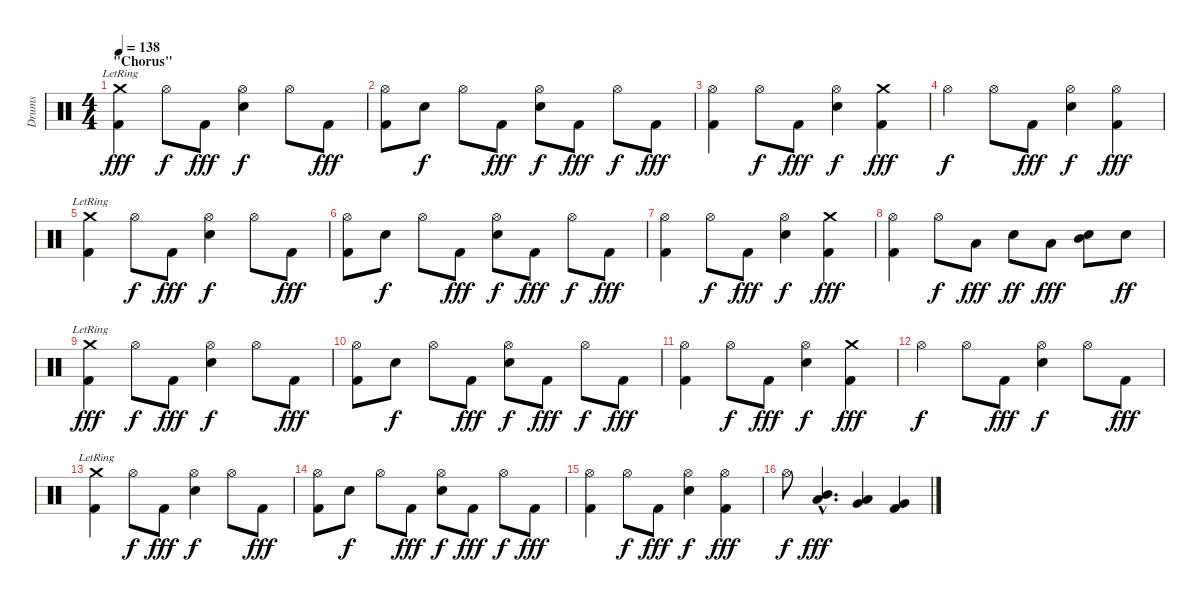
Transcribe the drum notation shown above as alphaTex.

\track ("Drums" "Drums") {instrument percussion}
\staff {score}
\articulation defaults
\ts (4 4)
\section ("" "\"Chorus\"")
\tempo 138
\clef neutral
\ks c
("Crash medium (hit)"{lr} "Kick (hit) 2").4{dy fff} "Hi-Hat (open)".8{dy f} "Kick (hit) 2".8{dy fff} ("Hi-Hat (open)" "Snare (hit) 2").4{dy f} "Hi-Hat (open)".8 "Kick (hit) 2".8{dy fff} |
("Hi-Hat (open)" "Kick (hit) 2").8 "Snare (hit) 2".8{dy f} "Hi-Hat (open)".8 "Kick (hit) 2".8{dy fff} ("Hi-Hat (open)" "Snare (hit) 2").8{dy f} "Kick (hit) 2".8{dy fff} "Hi-Hat (open)".8{dy f} "Kick (hit) 2".8{dy fff} |
("Hi-Hat (open)" "Kick (hit) 2").4 "Hi-Hat (open)".8{dy f} "Kick (hit) 2".8{dy fff} ("Hi-Hat (open)" "Snare (hit) 2").4{dy f} ("Crash medium (hit)" "Kick (hit) 2").4{dy fff} |
"Hi-Hat (open)".4{dy f} "Hi-Hat (open)".8 "Kick (hit) 2".8{dy fff} ("Hi-Hat (open)" "Snare (hit) 2").4{dy f} ("Hi-Hat (open)" "Kick (hit) 2").4{dy fff} |
("Crash medium (hit)"{lr} "Kick (hit) 2").4 "Hi-Hat (open)".8{dy f} "Kick (hit) 2".8{dy fff} ("Hi-Hat (open)" "Snare (hit) 2").4{dy f} "Hi-Hat (open)".8 "Kick (hit) 2".8{dy fff} |
("Hi-Hat (open)" "Kick (hit) 2").8 "Snare (hit) 2".8{dy f} "Hi-Hat (open)".8 "Kick (hit) 2".8{dy fff} ("Hi-Hat (open)" "Snare (hit) 2").8{dy f} "Kick (hit) 2".8{dy fff} "Hi-Hat (open)".8{dy f} "Kick (hit) 2".8{dy fff} |
("Hi-Hat (open)" "Kick (hit) 2").4 "Hi-Hat (open)".8{dy f} "Kick (hit) 2".8{dy fff} ("Hi-Hat (open)" "Snare (hit) 2").4{dy f} ("Crash medium (hit)" "Kick (hit) 2").4{dy fff} |
("Hi-Hat (open)" "Kick (hit) 2").4 "Hi-Hat (open)".8{dy f} "Low Tom (hit)".8{dy fff} "Snare (hit) 2".8{dy ff} "Low Tom (hit)".8{dy fff} ("Snare (hit) 2" "Mid Tom (hit)").8 "Snare (hit) 2".8{dy ff} |
("Crash medium (hit)"{lr} "Kick (hit) 2").4{dy fff} "Hi-Hat (open)".8{dy f} "Kick (hit) 2".8{dy fff} ("Hi-Hat (open)" "Snare (hit) 2").4{dy f} "Hi-Hat (open)".8 "Kick (hit) 2".8{dy fff} |
("Hi-Hat (open)" "Kick (hit) 2").8 "Snare (hit) 2".8{dy f} "Hi-Hat (open)".8 "Kick (hit) 2".8{dy fff} ("Hi-Hat (open)" "Snare (hit) 2").8{dy f} "Kick (hit) 2".8{dy fff} "Hi-Hat (open)".8{dy f} "Kick (hit) 2".8{dy fff} |
("Hi-Hat (open)" "Kick (hit) 2").4 "Hi-Hat (open)".8{dy f} "Kick (hit) 2".8{dy fff} ("Hi-Hat (open)" "Snare (hit) 2").4{dy f} ("Crash medium (hit)" "Kick (hit) 2").4{dy fff} |
"Hi-Hat (open)".4{dy f} "Hi-Hat (open)".8 "Kick (hit) 2".8{dy fff} ("Hi-Hat (open)" "Snare (hit) 2").4{dy f} "Hi-Hat (open)".8 "Kick (hit) 2".8{dy fff} |
("Crash medium (hit)"{lr} "Kick (hit) 2").4 "Hi-Hat (open)".8{dy f} "Kick (hit) 2".8{dy fff} ("Hi-Hat (open)" "Snare (hit) 2").4{dy f} "Hi-Hat (open)".8 "Kick (hit) 2".8{dy fff} |
("Hi-Hat (open)" "Kick (hit) 2").8 "Snare (hit) 2".8{dy f} "Hi-Hat (open)".8 "Kick (hit) 2".8{dy fff} ("Hi-Hat (open)" "Snare (hit) 2").8{dy f} "Kick (hit) 2".8{dy fff} "Hi-Hat (open)".8{dy f} "Kick (hit) 2".8{dy fff} |
("Hi-Hat (open)" "Kick (hit) 2").4 "Hi-Hat (open)".8{dy f} "Kick (hit) 2".8{dy fff} ("Hi-Hat (open)" "Snare (hit) 2").4{dy f} ("Hi-Hat (open)" "Kick (hit) 2").4{dy fff} |
"Hi-Hat (open)".8{dy f} ("Mid Tom (hit)"{hac} "Low Tom (hit)"{hac}).4{d dy fff} ("Low Tom (hit)" "Very Low Tom (hit)").4 ("Very Low Tom (hit)" "Kick (hit) 2").4
